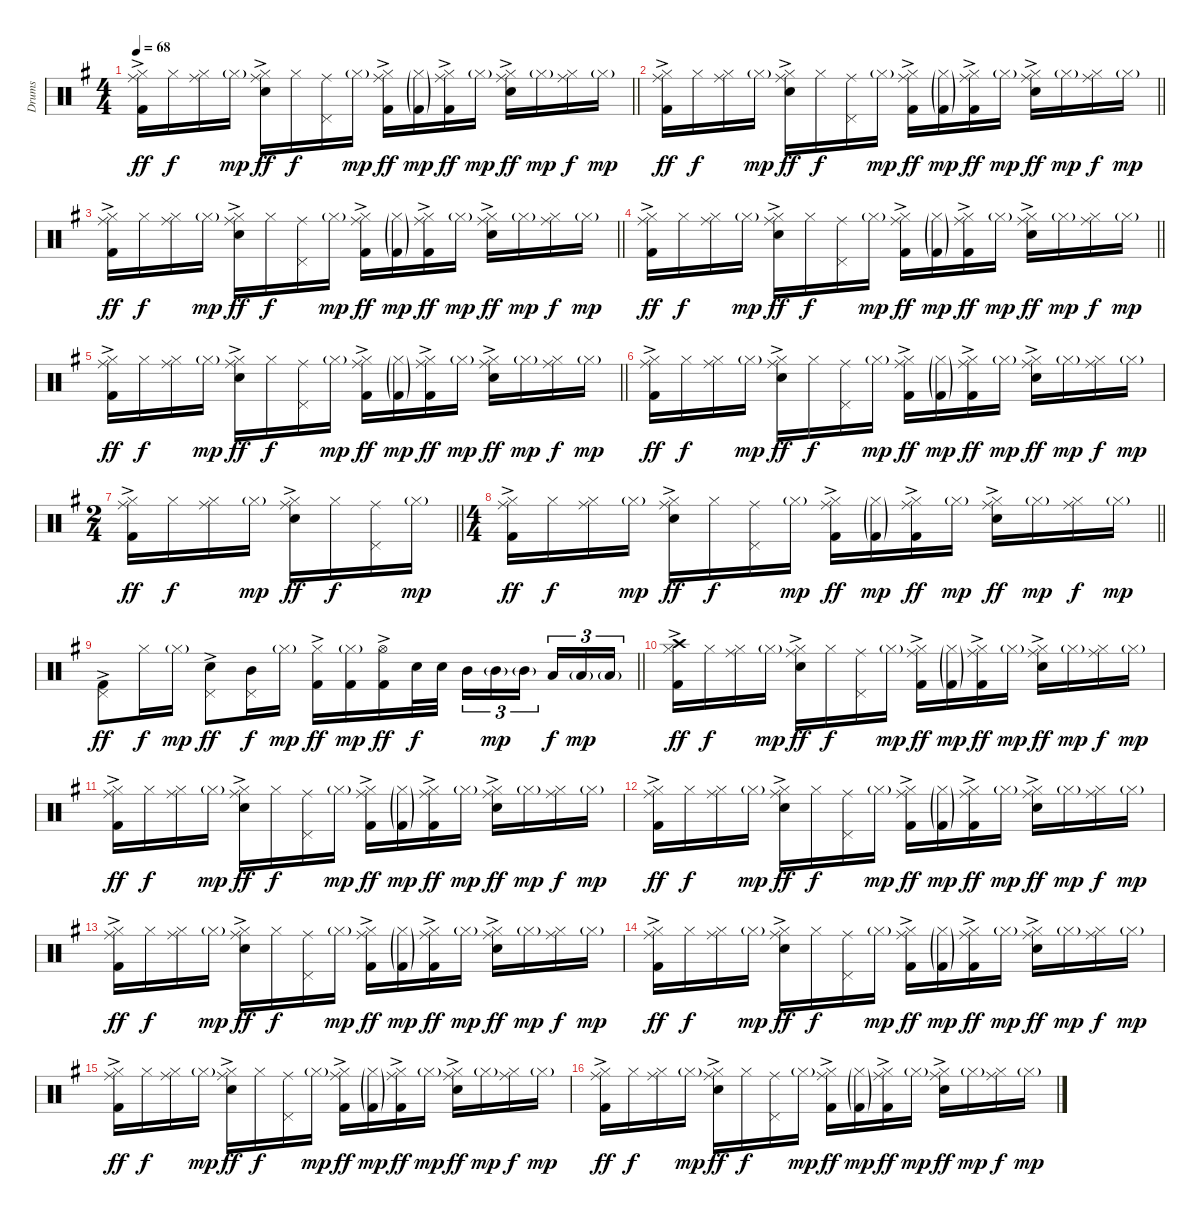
\track ("Drums" "Drums") {instrument percussion}
\staff {score}
\articulation defaults
\ts (4 4)
\tempo 68
\clef neutral
\barLineRight lightlight
\ks g
("Hi-Hat (closed)" "Ride (middle)" "Kick (hit) 2"{ac}).16{dy ff} "Hi-Hat (closed)".16{dy f} ("Hi-Hat (closed)" "Ride (middle)").16 "Hi-Hat (closed)"{g}.16{dy mp} ("Hi-Hat (closed)" "Ride (middle)" "Snare (hit) 2"{ac}).16{dy ff} "Hi-Hat (closed)".16{dy f} ("Pedal Hi-Hat (hit)" "Ride (middle)").16 "Hi-Hat (closed)"{g}.16{dy mp} ("Hi-Hat (closed)" "Ride (middle)" "Kick (hit) 2"{ac}).16{dy ff} ("Hi-Hat (closed)"{g} "Kick (hit) 2"{g}).16{dy mp} ("Hi-Hat (closed)" "Ride (middle)" "Kick (hit) 2"{ac}).16{dy ff} "Hi-Hat (closed)"{g}.16{dy mp} ("Hi-Hat (closed)" "Ride (middle)" "Snare (hit) 2"{ac}).16{dy ff} "Hi-Hat (closed)"{g}.16{dy mp} ("Hi-Hat (closed)" "Ride (middle)").16{dy f} "Hi-Hat (closed)"{g}.16{dy mp} |
\barLineRight lightlight
("Hi-Hat (closed)" "Ride (middle)" "Kick (hit) 2"{ac}).16{dy ff} "Hi-Hat (closed)".16{dy f} ("Hi-Hat (closed)" "Ride (middle)").16 "Hi-Hat (closed)"{g}.16{dy mp} ("Hi-Hat (closed)" "Ride (middle)" "Snare (hit) 2"{ac}).16{dy ff} "Hi-Hat (closed)".16{dy f} ("Pedal Hi-Hat (hit)" "Ride (middle)").16 "Hi-Hat (closed)"{g}.16{dy mp} ("Hi-Hat (closed)" "Ride (middle)" "Kick (hit) 2"{ac}).16{dy ff} ("Hi-Hat (closed)"{g} "Kick (hit) 2"{g}).16{dy mp} ("Hi-Hat (closed)" "Ride (middle)" "Kick (hit) 2"{ac}).16{dy ff} "Hi-Hat (closed)"{g}.16{dy mp} ("Hi-Hat (closed)" "Ride (middle)" "Snare (hit) 2"{ac}).16{dy ff} "Hi-Hat (closed)"{g}.16{dy mp} ("Hi-Hat (closed)" "Ride (middle)").16{dy f} "Hi-Hat (closed)"{g}.16{dy mp} |
\barLineRight lightlight
("Hi-Hat (closed)" "Ride (middle)" "Kick (hit) 2"{ac}).16{dy ff} "Hi-Hat (closed)".16{dy f} ("Hi-Hat (closed)" "Ride (middle)").16 "Hi-Hat (closed)"{g}.16{dy mp} ("Hi-Hat (closed)" "Ride (middle)" "Snare (hit) 2"{ac}).16{dy ff} "Hi-Hat (closed)".16{dy f} ("Pedal Hi-Hat (hit)" "Ride (middle)").16 "Hi-Hat (closed)"{g}.16{dy mp} ("Hi-Hat (closed)" "Ride (middle)" "Kick (hit) 2"{ac}).16{dy ff} ("Hi-Hat (closed)"{g} "Kick (hit) 2"{g}).16{dy mp} ("Hi-Hat (closed)" "Ride (middle)" "Kick (hit) 2"{ac}).16{dy ff} "Hi-Hat (closed)"{g}.16{dy mp} ("Hi-Hat (closed)" "Ride (middle)" "Snare (hit) 2"{ac}).16{dy ff} "Hi-Hat (closed)"{g}.16{dy mp} ("Hi-Hat (closed)" "Ride (middle)").16{dy f} "Hi-Hat (closed)"{g}.16{dy mp} |
\section ("" "")
\barLineRight lightlight
("Hi-Hat (closed)" "Ride (middle)" "Kick (hit) 2"{ac}).16{dy ff} "Hi-Hat (closed)".16{dy f} ("Hi-Hat (closed)" "Ride (middle)").16 "Hi-Hat (closed)"{g}.16{dy mp} ("Hi-Hat (closed)" "Ride (middle)" "Snare (hit) 2"{ac}).16{dy ff} "Hi-Hat (closed)".16{dy f} ("Pedal Hi-Hat (hit)" "Ride (middle)").16 "Hi-Hat (closed)"{g}.16{dy mp} ("Hi-Hat (closed)" "Ride (middle)" "Kick (hit) 2"{ac}).16{dy ff} ("Hi-Hat (closed)"{g} "Kick (hit) 2"{g}).16{dy mp} ("Hi-Hat (closed)" "Ride (middle)" "Kick (hit) 2"{ac}).16{dy ff} "Hi-Hat (closed)"{g}.16{dy mp} ("Hi-Hat (closed)" "Ride (middle)" "Snare (hit) 2"{ac}).16{dy ff} "Hi-Hat (closed)"{g}.16{dy mp} ("Hi-Hat (closed)" "Ride (middle)").16{dy f} "Hi-Hat (closed)"{g}.16{dy mp} |
\section ("" "")
\barLineRight lightlight
("Hi-Hat (closed)" "Ride (middle)" "Kick (hit) 2"{ac}).16{dy ff} "Hi-Hat (closed)".16{dy f} ("Hi-Hat (closed)" "Ride (middle)").16 "Hi-Hat (closed)"{g}.16{dy mp} ("Hi-Hat (closed)" "Ride (middle)" "Snare (hit) 2"{ac}).16{dy ff} "Hi-Hat (closed)".16{dy f} ("Pedal Hi-Hat (hit)" "Ride (middle)").16 "Hi-Hat (closed)"{g}.16{dy mp} ("Hi-Hat (closed)" "Ride (middle)" "Kick (hit) 2"{ac}).16{dy ff} ("Hi-Hat (closed)"{g} "Kick (hit) 2"{g}).16{dy mp} ("Hi-Hat (closed)" "Ride (middle)" "Kick (hit) 2"{ac}).16{dy ff} "Hi-Hat (closed)"{g}.16{dy mp} ("Hi-Hat (closed)" "Ride (middle)" "Snare (hit) 2"{ac}).16{dy ff} "Hi-Hat (closed)"{g}.16{dy mp} ("Hi-Hat (closed)" "Ride (middle)").16{dy f} "Hi-Hat (closed)"{g}.16{dy mp} |
\section ("" "")
("Hi-Hat (closed)" "Ride (middle)" "Kick (hit) 2"{ac}).16{dy ff} "Hi-Hat (closed)".16{dy f} ("Hi-Hat (closed)" "Ride (middle)").16 "Hi-Hat (closed)"{g}.16{dy mp} ("Hi-Hat (closed)" "Ride (middle)" "Snare (hit) 2"{ac}).16{dy ff} "Hi-Hat (closed)".16{dy f} ("Pedal Hi-Hat (hit)" "Ride (middle)").16 "Hi-Hat (closed)"{g}.16{dy mp} ("Hi-Hat (closed)" "Ride (middle)" "Kick (hit) 2"{ac}).16{dy ff} ("Hi-Hat (closed)"{g} "Kick (hit) 2"{g}).16{dy mp} ("Hi-Hat (closed)" "Ride (middle)" "Kick (hit) 2"{ac}).16{dy ff} "Hi-Hat (closed)"{g}.16{dy mp} ("Hi-Hat (closed)" "Ride (middle)" "Snare (hit) 2"{ac}).16{dy ff} "Hi-Hat (closed)"{g}.16{dy mp} ("Hi-Hat (closed)" "Ride (middle)").16{dy f} "Hi-Hat (closed)"{g}.16{dy mp} |
\ts (2 4)
\barLineRight lightlight
("Hi-Hat (closed)" "Ride (middle)" "Kick (hit) 2"{ac}).16{dy ff} "Hi-Hat (closed)".16{dy f} ("Hi-Hat (closed)" "Ride (middle)").16 "Hi-Hat (closed)"{g}.16{dy mp} ("Hi-Hat (closed)" "Ride (middle)" "Snare (hit) 2"{ac}).16{dy ff} "Hi-Hat (closed)".16{dy f} ("Pedal Hi-Hat (hit)" "Ride (middle)").16 "Hi-Hat (closed)"{g}.16{dy mp} |
\ts (4 4)
\barLineRight lightlight
("Hi-Hat (closed)" "Ride (middle)" "Kick (hit) 2"{ac}).16{dy ff} "Hi-Hat (closed)".16{dy f} ("Hi-Hat (closed)" "Ride (middle)").16 "Hi-Hat (closed)"{g}.16{dy mp} ("Hi-Hat (closed)" "Ride (middle)" "Snare (hit) 2"{ac}).16{dy ff} "Hi-Hat (closed)".16{dy f} ("Pedal Hi-Hat (hit)" "Ride (middle)").16 "Hi-Hat (closed)"{g}.16{dy mp} ("Hi-Hat (closed)" "Ride (middle)" "Kick (hit) 2"{ac}).16{dy ff} ("Hi-Hat (closed)"{g} "Kick (hit) 2"{g}).16{dy mp} ("Hi-Hat (closed)" "Ride (middle)" "Kick (hit) 2"{ac}).16{dy ff} "Hi-Hat (closed)"{g}.16{dy mp} ("Hi-Hat (closed)" "Ride (middle)" "Snare (hit) 2"{ac}).16{dy ff} "Hi-Hat (closed)"{g}.16{dy mp} ("Hi-Hat (closed)" "Ride (middle)").16{dy f} "Hi-Hat (closed)"{g}.16{dy mp} |
\section ("" "")
\barLineRight lightlight
("Pedal Hi-Hat (hit)" "Kick (hit) 2"{ac}).8{dy ff} "Hi-Hat (closed)".16{dy f} "Hi-Hat (closed)"{g}.16{dy mp} ("Pedal Hi-Hat (hit)" "Snare (hit) 2"{ac}).8{dy ff} ("Pedal Hi-Hat (hit)" "Mid Tom (hit)").16{dy f} "Hi-Hat (closed)"{g}.16{dy mp} ("Hi-Hat (closed)" "Kick (hit) 2"{ac}).16{dy ff} ("Hi-Hat (closed)"{g} "Kick (hit) 2").16{dy mp} ("Hi-Hat (open)" "Kick (hit) 2"{ac}).16{dy ff} "Snare (hit) 2".32{dy f} "Snare (hit) 2".32 "Mid Tom (hit)".16{tu (3 2)} "Mid Tom (hit)"{g}.16{tu (3 2) dy mp} "Mid Tom (hit)"{g}.16{tu (3 2) beam splitsecondary} "Low Tom (hit)".16{tu (3 2) dy f} "Low Tom (hit)"{g}.16{tu (3 2) dy mp} "Low Floor Tom (hit)"{g}.16{tu (3 2)} |
\section ("" "")
("Hi-Hat (closed)" "Crash high (hit)" "Kick (hit) 2"{ac}).16{dy ff} "Hi-Hat (closed)".16{dy f} ("Hi-Hat (closed)" "Ride (middle)").16 "Hi-Hat (closed)"{g}.16{dy mp} ("Hi-Hat (closed)" "Ride (middle)" "Snare (hit) 2"{ac}).16{dy ff} "Hi-Hat (closed)".16{dy f} ("Pedal Hi-Hat (hit)" "Ride (middle)").16 "Hi-Hat (closed)"{g}.16{dy mp} ("Hi-Hat (closed)" "Ride (middle)" "Kick (hit) 2"{ac}).16{dy ff} ("Hi-Hat (closed)"{g} "Kick (hit) 2"{g}).16{dy mp} ("Hi-Hat (closed)" "Ride (middle)" "Kick (hit) 2"{ac}).16{dy ff} "Hi-Hat (closed)"{g}.16{dy mp} ("Hi-Hat (closed)" "Ride (middle)" "Snare (hit) 2"{ac}).16{dy ff} "Hi-Hat (closed)"{g}.16{dy mp} ("Hi-Hat (closed)" "Ride (middle)").16{dy f} "Hi-Hat (closed)"{g}.16{dy mp} |
("Hi-Hat (closed)" "Ride (middle)" "Kick (hit) 2"{ac}).16{dy ff} "Hi-Hat (closed)".16{dy f} ("Hi-Hat (closed)" "Ride (middle)").16 "Hi-Hat (closed)"{g}.16{dy mp} ("Hi-Hat (closed)" "Ride (middle)" "Snare (hit) 2"{ac}).16{dy ff} "Hi-Hat (closed)".16{dy f} ("Pedal Hi-Hat (hit)" "Ride (middle)").16 "Hi-Hat (closed)"{g}.16{dy mp} ("Hi-Hat (closed)" "Ride (middle)" "Kick (hit) 2"{ac}).16{dy ff} ("Hi-Hat (closed)"{g} "Kick (hit) 2"{g}).16{dy mp} ("Hi-Hat (closed)" "Ride (middle)" "Kick (hit) 2"{ac}).16{dy ff} "Hi-Hat (closed)"{g}.16{dy mp} ("Hi-Hat (closed)" "Ride (middle)" "Snare (hit) 2"{ac}).16{dy ff} "Hi-Hat (closed)"{g}.16{dy mp} ("Hi-Hat (closed)" "Ride (middle)").16{dy f} "Hi-Hat (closed)"{g}.16{dy mp} |
("Hi-Hat (closed)" "Ride (middle)" "Kick (hit) 2"{ac}).16{dy ff} "Hi-Hat (closed)".16{dy f} ("Hi-Hat (closed)" "Ride (middle)").16 "Hi-Hat (closed)"{g}.16{dy mp} ("Hi-Hat (closed)" "Ride (middle)" "Snare (hit) 2"{ac}).16{dy ff} "Hi-Hat (closed)".16{dy f} ("Pedal Hi-Hat (hit)" "Ride (middle)").16 "Hi-Hat (closed)"{g}.16{dy mp} ("Hi-Hat (closed)" "Ride (middle)" "Kick (hit) 2"{ac}).16{dy ff} ("Hi-Hat (closed)"{g} "Kick (hit) 2"{g}).16{dy mp} ("Hi-Hat (closed)" "Ride (middle)" "Kick (hit) 2"{ac}).16{dy ff} "Hi-Hat (closed)"{g}.16{dy mp} ("Hi-Hat (closed)" "Ride (middle)" "Snare (hit) 2"{ac}).16{dy ff} "Hi-Hat (closed)"{g}.16{dy mp} ("Hi-Hat (closed)" "Ride (middle)").16{dy f} "Hi-Hat (closed)"{g}.16{dy mp} |
("Hi-Hat (closed)" "Ride (middle)" "Kick (hit) 2"{ac}).16{dy ff} "Hi-Hat (closed)".16{dy f} ("Hi-Hat (closed)" "Ride (middle)").16 "Hi-Hat (closed)"{g}.16{dy mp} ("Hi-Hat (closed)" "Ride (middle)" "Snare (hit) 2"{ac}).16{dy ff} "Hi-Hat (closed)".16{dy f} ("Pedal Hi-Hat (hit)" "Ride (middle)").16 "Hi-Hat (closed)"{g}.16{dy mp} ("Hi-Hat (closed)" "Ride (middle)" "Kick (hit) 2"{ac}).16{dy ff} ("Hi-Hat (closed)"{g} "Kick (hit) 2"{g}).16{dy mp} ("Hi-Hat (closed)" "Ride (middle)" "Kick (hit) 2"{ac}).16{dy ff} "Hi-Hat (closed)"{g}.16{dy mp} ("Hi-Hat (closed)" "Ride (middle)" "Snare (hit) 2"{ac}).16{dy ff} "Hi-Hat (closed)"{g}.16{dy mp} ("Hi-Hat (closed)" "Ride (middle)").16{dy f} "Hi-Hat (closed)"{g}.16{dy mp} |
("Hi-Hat (closed)" "Ride (middle)" "Kick (hit) 2"{ac}).16{dy ff} "Hi-Hat (closed)".16{dy f} ("Hi-Hat (closed)" "Ride (middle)").16 "Hi-Hat (closed)"{g}.16{dy mp} ("Hi-Hat (closed)" "Ride (middle)" "Snare (hit) 2"{ac}).16{dy ff} "Hi-Hat (closed)".16{dy f} ("Pedal Hi-Hat (hit)" "Ride (middle)").16 "Hi-Hat (closed)"{g}.16{dy mp} ("Hi-Hat (closed)" "Ride (middle)" "Kick (hit) 2"{ac}).16{dy ff} ("Hi-Hat (closed)"{g} "Kick (hit) 2"{g}).16{dy mp} ("Hi-Hat (closed)" "Ride (middle)" "Kick (hit) 2"{ac}).16{dy ff} "Hi-Hat (closed)"{g}.16{dy mp} ("Hi-Hat (closed)" "Ride (middle)" "Snare (hit) 2"{ac}).16{dy ff} "Hi-Hat (closed)"{g}.16{dy mp} ("Hi-Hat (closed)" "Ride (middle)").16{dy f} "Hi-Hat (closed)"{g}.16{dy mp} |
("Hi-Hat (closed)" "Ride (middle)" "Kick (hit) 2"{ac}).16{dy ff} "Hi-Hat (closed)".16{dy f} ("Hi-Hat (closed)" "Ride (middle)").16 "Hi-Hat (closed)"{g}.16{dy mp} ("Hi-Hat (closed)" "Ride (middle)" "Snare (hit) 2"{ac}).16{dy ff} "Hi-Hat (closed)".16{dy f} ("Pedal Hi-Hat (hit)" "Ride (middle)").16 "Hi-Hat (closed)"{g}.16{dy mp} ("Hi-Hat (closed)" "Ride (middle)" "Kick (hit) 2"{ac}).16{dy ff} ("Hi-Hat (closed)"{g} "Kick (hit) 2"{g}).16{dy mp} ("Hi-Hat (closed)" "Ride (middle)" "Kick (hit) 2"{ac}).16{dy ff} "Hi-Hat (closed)"{g}.16{dy mp} ("Hi-Hat (closed)" "Ride (middle)" "Snare (hit) 2"{ac}).16{dy ff} "Hi-Hat (closed)"{g}.16{dy mp} ("Hi-Hat (closed)" "Ride (middle)").16{dy f} "Hi-Hat (closed)"{g}.16{dy mp} |
("Hi-Hat (closed)" "Ride (middle)" "Kick (hit) 2"{ac}).16{dy ff} "Hi-Hat (closed)".16{dy f} ("Hi-Hat (closed)" "Ride (middle)").16 "Hi-Hat (closed)"{g}.16{dy mp} ("Hi-Hat (closed)" "Ride (middle)" "Snare (hit) 2"{ac}).16{dy ff} "Hi-Hat (closed)".16{dy f} ("Pedal Hi-Hat (hit)" "Ride (middle)").16 "Hi-Hat (closed)"{g}.16{dy mp} ("Hi-Hat (closed)" "Ride (middle)" "Kick (hit) 2"{ac}).16{dy ff} ("Hi-Hat (closed)"{g} "Kick (hit) 2"{g}).16{dy mp} ("Hi-Hat (closed)" "Ride (middle)" "Kick (hit) 2"{ac}).16{dy ff} "Hi-Hat (closed)"{g}.16{dy mp} ("Hi-Hat (closed)" "Ride (middle)" "Snare (hit) 2"{ac}).16{dy ff} "Hi-Hat (closed)"{g}.16{dy mp} ("Hi-Hat (closed)" "Ride (middle)").16{dy f} "Hi-Hat (closed)"{g}.16{dy mp}
